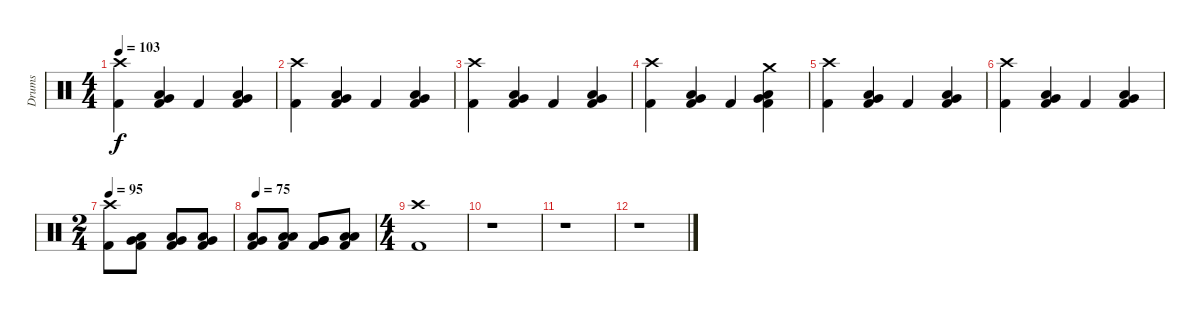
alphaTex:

\track ("Drums" "Drums") {instrument percussion}
\staff {score}
\articulation defaults
\ts (4 4)
\tempo 103
\clef neutral
\ks c
("Crash high (hit)" "Kick (hit) 2").4{dy f} ("Low Floor Tom (hit)" "Very Low Tom (hit)" "Kick (hit) 2").4 "Kick (hit) 2".4 ("Low Floor Tom (hit)" "Very Low Tom (hit)" "Kick (hit) 2").4 |
("Crash high (hit)" "Kick (hit) 2").4 ("Low Floor Tom (hit)" "Very Low Tom (hit)" "Kick (hit) 2").4 "Kick (hit) 2".4 ("Low Floor Tom (hit)" "Very Low Tom (hit)" "Kick (hit) 2").4 |
("Crash high (hit)" "Kick (hit) 2").4 ("Low Floor Tom (hit)" "Very Low Tom (hit)" "Kick (hit) 2").4 "Kick (hit) 2".4 ("Low Floor Tom (hit)" "Very Low Tom (hit)" "Kick (hit) 2").4 |
("Crash high (hit)" "Kick (hit) 2").4 ("Low Floor Tom (hit)" "Very Low Tom (hit)" "Kick (hit) 2").4 "Kick (hit) 2".4 ("Crash medium (hit)" "Low Floor Tom (hit)" "Very Low Tom (hit)" "Kick (hit) 2").4 |
("Crash high (hit)" "Kick (hit) 2").4 ("Low Floor Tom (hit)" "Very Low Tom (hit)" "Kick (hit) 2").4 "Kick (hit) 2".4 ("Low Floor Tom (hit)" "Very Low Tom (hit)" "Kick (hit) 2").4 |
("Crash high (hit)" "Kick (hit) 2").4 ("Low Floor Tom (hit)" "Very Low Tom (hit)" "Kick (hit) 2").4 "Kick (hit) 2".4 ("Low Floor Tom (hit)" "Very Low Tom (hit)" "Kick (hit) 2").4 |
\ts (2 4)
\tempo 95
("Crash high (hit)" "Kick (hit) 2").8 ("Low Floor Tom (hit)" "Very Low Tom (hit)" "Kick (hit) 2").8 ("Low Floor Tom (hit)" "Very Low Tom (hit)" "Kick (hit) 2").8 ("Low Floor Tom (hit)" "Very Low Tom (hit)" "Kick (hit) 2").8 |
\tempo 75
("Low Floor Tom (hit)" "Very Low Tom (hit)" "Kick (hit) 2").8 ("Low Tom (hit)" "Low Tom (hit)" "Kick (hit) 2").8 ("Very Low Tom (hit)" "Very Low Tom (hit)" "Kick (hit) 2").8 ("Low Floor Tom (hit)" "Low Floor Tom (hit)" "Kick (hit) 2").8 |
\ts (4 4)
("Crash high (hit)" "Kick (hit) 2").1 |
r.1 |
r.1 |
r.1
